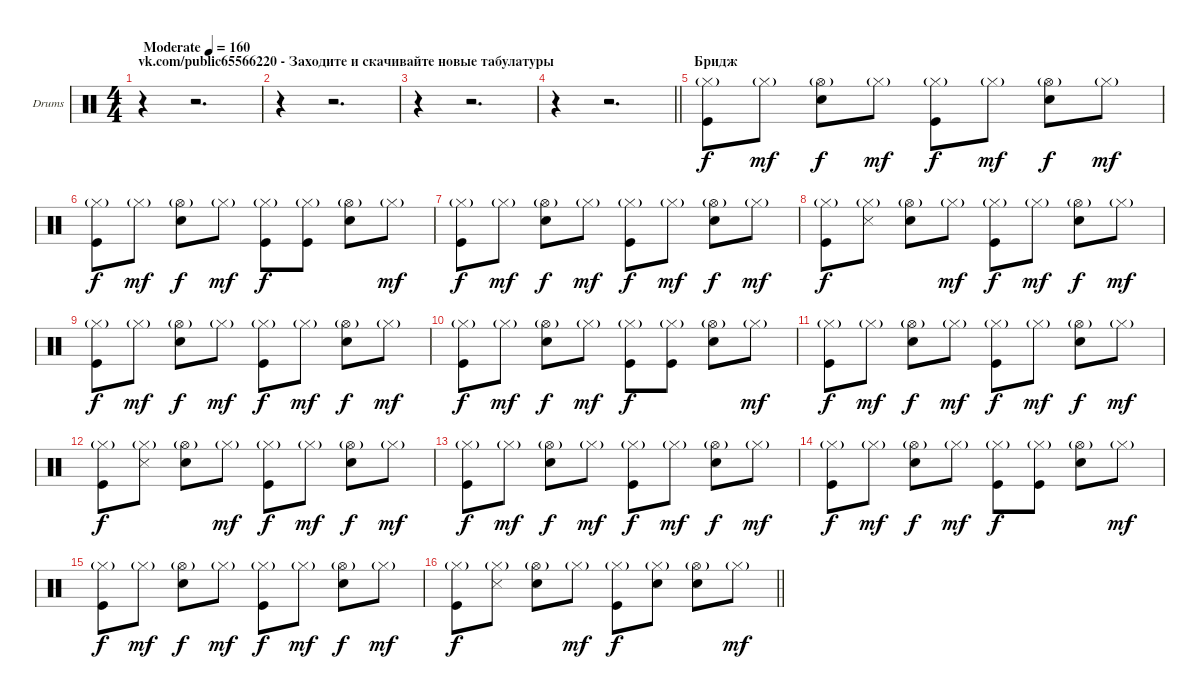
\bracketExtendMode groupsimilarinstruments
\firstSystemTrackNameOrientation horizontal
\otherSystemsTrackNameOrientation horizontal
\track ("Ударные" "Drums") {instrument percussion}
\staff {score}
\articulation defaults
\ts (4 4)
\beaming (8 2 2 2 2)
\section ("" "vk.com/public65566220 - Заходите и скачивайте новые табулатуры")
\tempo (160 "Moderate")
\clef neutral
\ks c
r.4{dy f} r.2{d} |
r.4 r.2{d} |
r.4 r.2{d} |
\barLineRight lightlight
r.4 r.2{d} |
\section ("" "Бридж")
("Hi-Hat (closed)"{g} "Kick (hit)").8 "Hi-Hat (closed)"{g}.8{dy mf} ("Hi-Hat (open)"{g} "Snare (hit) 2").8{dy f} "Hi-Hat (closed)"{g}.8{dy mf} ("Hi-Hat (closed)"{g} "Kick (hit)").8{dy f} "Hi-Hat (closed)"{g}.8{dy mf} ("Hi-Hat (open)"{g} "Snare (hit) 2").8{dy f} "Hi-Hat (closed)"{g}.8{dy mf} |
("Hi-Hat (closed)"{g} "Kick (hit)").8{dy f} "Hi-Hat (closed)"{g}.8{dy mf} ("Hi-Hat (open)"{g} "Snare (hit) 2").8{dy f} "Hi-Hat (closed)"{g}.8{dy mf} ("Hi-Hat (closed)"{g} "Kick (hit)").8{dy f} ("Hi-Hat (closed)"{g} "Kick (hit)").8 ("Hi-Hat (open)"{g} "Snare (hit) 2").8 "Hi-Hat (closed)"{g}.8{dy mf} |
("Hi-Hat (closed)"{g} "Kick (hit)").8{dy f} "Hi-Hat (closed)"{g}.8{dy mf} ("Hi-Hat (open)"{g} "Snare (hit) 2").8{dy f} "Hi-Hat (closed)"{g}.8{dy mf} ("Hi-Hat (closed)"{g} "Kick (hit)").8{dy f} "Hi-Hat (closed)"{g}.8{dy mf} ("Hi-Hat (open)"{g} "Snare (hit) 2").8{dy f} "Hi-Hat (closed)"{g}.8{dy mf} |
("Hi-Hat (closed)"{g} "Kick (hit)").8{dy f} ("Hi-Hat (closed)"{g} "Snare (side stick) 3").8 ("Hi-Hat (open)"{g} "Snare (hit) 2").8 "Hi-Hat (closed)"{g}.8{dy mf} ("Hi-Hat (closed)"{g} "Kick (hit)").8{dy f} "Hi-Hat (closed)"{g}.8{dy mf} ("Hi-Hat (open)"{g} "Snare (hit) 2").8{dy f} "Hi-Hat (closed)"{g}.8{dy mf} |
("Hi-Hat (closed)"{g} "Kick (hit)").8{dy f} "Hi-Hat (closed)"{g}.8{dy mf} ("Hi-Hat (open)"{g} "Snare (hit) 2").8{dy f} "Hi-Hat (closed)"{g}.8{dy mf} ("Hi-Hat (closed)"{g} "Kick (hit)").8{dy f} "Hi-Hat (closed)"{g}.8{dy mf} ("Hi-Hat (open)"{g} "Snare (hit) 2").8{dy f} "Hi-Hat (closed)"{g}.8{dy mf} |
("Hi-Hat (closed)"{g} "Kick (hit)").8{dy f} "Hi-Hat (closed)"{g}.8{dy mf} ("Hi-Hat (open)"{g} "Snare (hit) 2").8{dy f} "Hi-Hat (closed)"{g}.8{dy mf} ("Hi-Hat (closed)"{g} "Kick (hit)").8{dy f} ("Hi-Hat (closed)"{g} "Kick (hit)").8 ("Hi-Hat (open)"{g} "Snare (hit) 2").8 "Hi-Hat (closed)"{g}.8{dy mf} |
("Hi-Hat (closed)"{g} "Kick (hit)").8{dy f} "Hi-Hat (closed)"{g}.8{dy mf} ("Hi-Hat (open)"{g} "Snare (hit) 2").8{dy f} "Hi-Hat (closed)"{g}.8{dy mf} ("Hi-Hat (closed)"{g} "Kick (hit)").8{dy f} "Hi-Hat (closed)"{g}.8{dy mf} ("Hi-Hat (open)"{g} "Snare (hit) 2").8{dy f} "Hi-Hat (closed)"{g}.8{dy mf} |
("Hi-Hat (closed)"{g} "Kick (hit)").8{dy f} ("Hi-Hat (closed)"{g} "Snare (side stick) 3").8 ("Hi-Hat (open)"{g} "Snare (hit) 2").8 "Hi-Hat (closed)"{g}.8{dy mf} ("Hi-Hat (closed)"{g} "Kick (hit)").8{dy f} "Hi-Hat (closed)"{g}.8{dy mf} ("Hi-Hat (open)"{g} "Snare (hit) 2").8{dy f} "Hi-Hat (closed)"{g}.8{dy mf} |
("Hi-Hat (closed)"{g} "Kick (hit)").8{dy f} "Hi-Hat (closed)"{g}.8{dy mf} ("Hi-Hat (open)"{g} "Snare (hit) 2").8{dy f} "Hi-Hat (closed)"{g}.8{dy mf} ("Hi-Hat (closed)"{g} "Kick (hit)").8{dy f} "Hi-Hat (closed)"{g}.8{dy mf} ("Hi-Hat (open)"{g} "Snare (hit) 2").8{dy f} "Hi-Hat (closed)"{g}.8{dy mf} |
("Hi-Hat (closed)"{g} "Kick (hit)").8{dy f} "Hi-Hat (closed)"{g}.8{dy mf} ("Hi-Hat (open)"{g} "Snare (hit) 2").8{dy f} "Hi-Hat (closed)"{g}.8{dy mf} ("Hi-Hat (closed)"{g} "Kick (hit)").8{dy f} ("Hi-Hat (closed)"{g} "Kick (hit)").8 ("Hi-Hat (open)"{g} "Snare (hit) 2").8 "Hi-Hat (closed)"{g}.8{dy mf} |
("Hi-Hat (closed)"{g} "Kick (hit)").8{dy f} "Hi-Hat (closed)"{g}.8{dy mf} ("Hi-Hat (open)"{g} "Snare (hit) 2").8{dy f} "Hi-Hat (closed)"{g}.8{dy mf} ("Hi-Hat (closed)"{g} "Kick (hit)").8{dy f} "Hi-Hat (closed)"{g}.8{dy mf} ("Hi-Hat (open)"{g} "Snare (hit) 2").8{dy f} "Hi-Hat (closed)"{g}.8{dy mf} |
\barLineRight lightlight
("Hi-Hat (closed)"{g} "Kick (hit)").8{dy f} ("Hi-Hat (closed)"{g} "Snare (side stick) 3").8 ("Hi-Hat (open)"{g} "Snare (hit) 2").8 "Hi-Hat (closed)"{g}.8{dy mf} ("Hi-Hat (closed)"{g} "Kick (hit)").8{dy f} ("Hi-Hat (closed)"{g} "Snare (hit) 2").8 ("Hi-Hat (open)"{g} "Snare (hit) 2").8 "Hi-Hat (closed)"{g}.8{dy mf}
